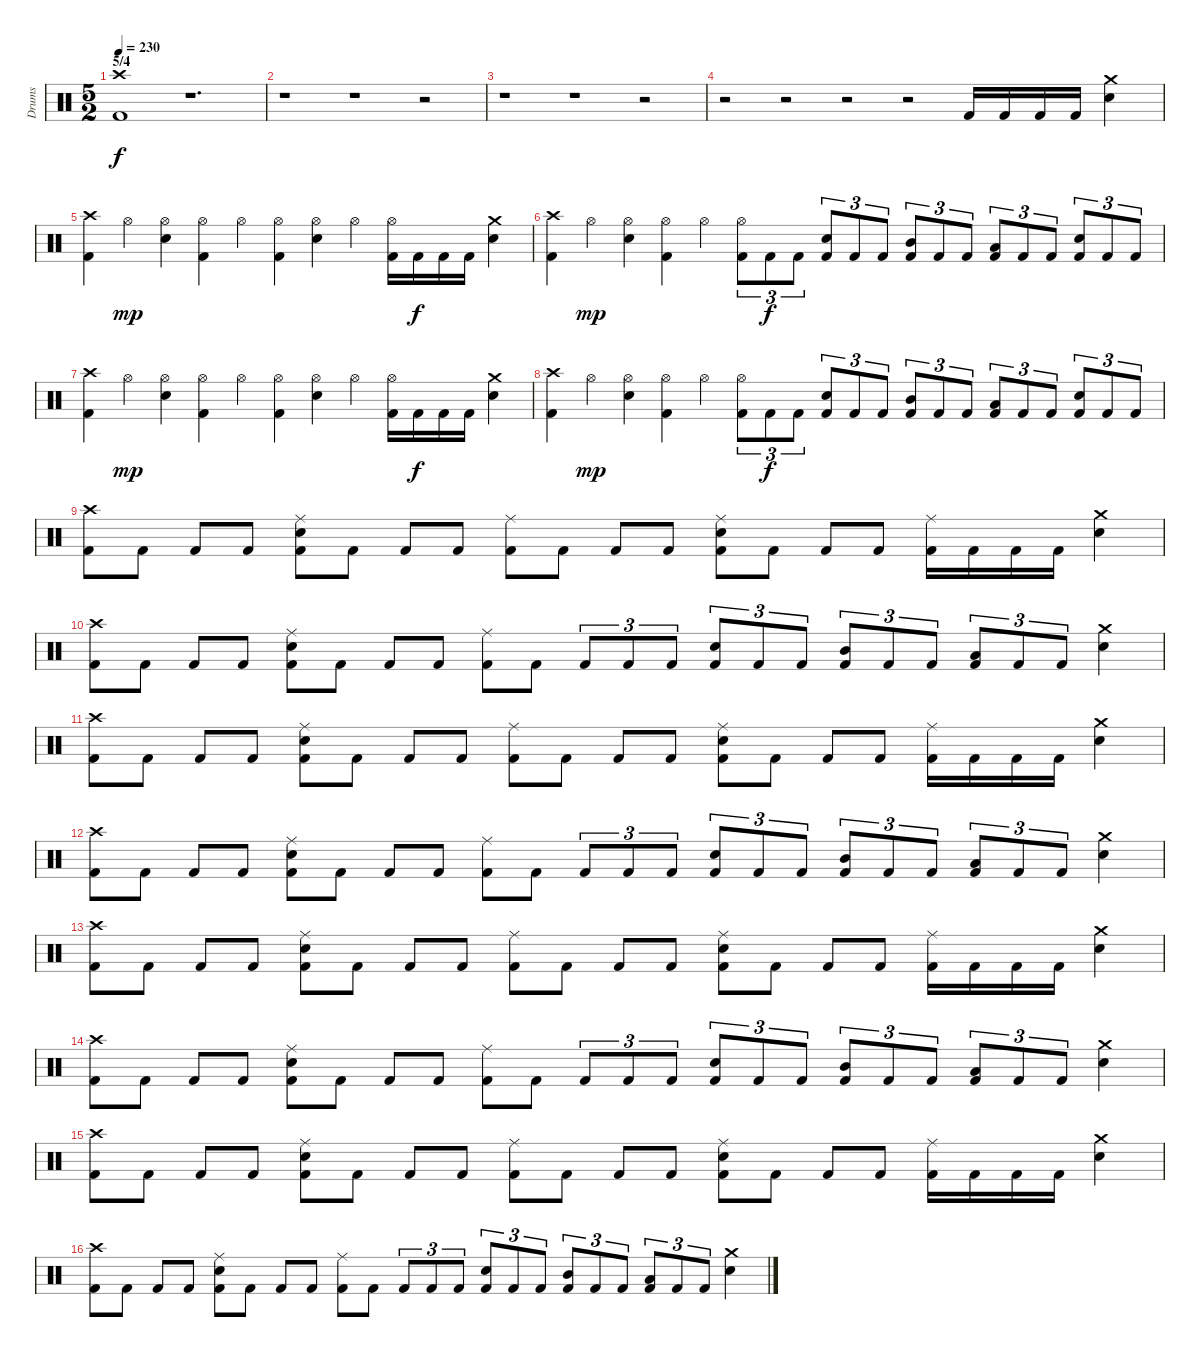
\track ("Drums" "Drums") {instrument percussion}
\staff {score}
\articulation defaults
\ts (5 2)
\section ("" "5/4")
\tempo 230
\clef neutral
\ks c
("Crash high (hit)" "Kick (hit) 2").1{dy f} r.1{d} |
r.1 r.1 r.2 |
r.1 r.1 r.2 |
r.2 r.2 r.2 r.2 "Kick (hit) 2".16 "Kick (hit) 2".16 "Kick (hit) 2".16 "Kick (hit) 2".16 ("Crash medium (hit)" "Snare (hit) 2").4 |
("Crash high (hit)" "Kick (hit) 2").4 "Hi-Hat (open)".4{dy mp} ("Hi-Hat (open)" "Snare (hit) 2").4 ("Hi-Hat (open)" "Kick (hit) 2").4 "Hi-Hat (open)".4 ("Hi-Hat (open)" "Kick (hit) 2").4 ("Hi-Hat (open)" "Snare (hit) 2").4 "Hi-Hat (open)".4 ("Hi-Hat (open)" "Kick (hit) 2").16 "Kick (hit) 2".16{dy f} "Kick (hit) 2".16 "Kick (hit) 2".16 ("Crash medium (hit)" "Snare (hit) 2").4 |
("Crash high (hit)" "Kick (hit) 2").4 "Hi-Hat (open)".4{dy mp} ("Hi-Hat (open)" "Snare (hit) 2").4 ("Hi-Hat (open)" "Kick (hit) 2").4 "Hi-Hat (open)".4 ("Hi-Hat (open)" "Kick (hit) 2").8{tu (3 2)} "Kick (hit) 2".8{tu (3 2) dy f} "Kick (hit) 2".8{tu (3 2)} ("Snare (hit) 2" "Kick (hit) 2").8{tu (3 2)} "Kick (hit) 2".8{tu (3 2)} "Kick (hit) 2".8{tu (3 2)} ("Mid Tom (hit)" "Kick (hit) 2").8{tu (3 2)} "Kick (hit) 2".8{tu (3 2)} "Kick (hit) 2".8{tu (3 2)} ("Low Tom (hit)" "Kick (hit) 2").8{tu (3 2)} "Kick (hit) 2".8{tu (3 2)} "Kick (hit) 2".8{tu (3 2)} ("Snare (hit) 2" "Kick (hit) 2").8{tu (3 2)} "Kick (hit) 2".8{tu (3 2)} "Kick (hit) 2".8{tu (3 2)} |
("Crash high (hit)" "Kick (hit) 2").4 "Hi-Hat (open)".4{dy mp} ("Hi-Hat (open)" "Snare (hit) 2").4 ("Hi-Hat (open)" "Kick (hit) 2").4 "Hi-Hat (open)".4 ("Hi-Hat (open)" "Kick (hit) 2").4 ("Hi-Hat (open)" "Snare (hit) 2").4 "Hi-Hat (open)".4 ("Hi-Hat (open)" "Kick (hit) 2").16 "Kick (hit) 2".16{dy f} "Kick (hit) 2".16 "Kick (hit) 2".16 ("Crash medium (hit)" "Snare (hit) 2").4 |
("Crash high (hit)" "Kick (hit) 2").4 "Hi-Hat (open)".4{dy mp} ("Hi-Hat (open)" "Snare (hit) 2").4 ("Hi-Hat (open)" "Kick (hit) 2").4 "Hi-Hat (open)".4 ("Hi-Hat (open)" "Kick (hit) 2").8{tu (3 2)} "Kick (hit) 2".8{tu (3 2) dy f} "Kick (hit) 2".8{tu (3 2)} ("Snare (hit) 2" "Kick (hit) 2").8{tu (3 2)} "Kick (hit) 2".8{tu (3 2)} "Kick (hit) 2".8{tu (3 2)} ("Mid Tom (hit)" "Kick (hit) 2").8{tu (3 2)} "Kick (hit) 2".8{tu (3 2)} "Kick (hit) 2".8{tu (3 2)} ("Low Tom (hit)" "Kick (hit) 2").8{tu (3 2)} "Kick (hit) 2".8{tu (3 2)} "Kick (hit) 2".8{tu (3 2)} ("Snare (hit) 2" "Kick (hit) 2").8{tu (3 2)} "Kick (hit) 2".8{tu (3 2)} "Kick (hit) 2".8{tu (3 2)} |
("Crash high (hit)" "Kick (hit) 2").8 "Kick (hit) 2".8 "Kick (hit) 2".8 "Kick (hit) 2".8 ("Ride (middle)" "Snare (hit) 2" "Kick (hit) 2").8 "Kick (hit) 2".8 "Kick (hit) 2".8 "Kick (hit) 2".8 ("Ride (middle)" "Kick (hit) 2").8 "Kick (hit) 2".8 "Kick (hit) 2".8 "Kick (hit) 2".8 ("Ride (middle)" "Snare (hit) 2" "Kick (hit) 2").8 "Kick (hit) 2".8 "Kick (hit) 2".8 "Kick (hit) 2".8 ("Ride (middle)" "Kick (hit) 2").16 "Kick (hit) 2".16 "Kick (hit) 2".16 "Kick (hit) 2".16 ("Crash medium (hit)" "Snare (hit) 2").4 |
("Crash high (hit)" "Kick (hit) 2").8 "Kick (hit) 2".8 "Kick (hit) 2".8 "Kick (hit) 2".8 ("Ride (middle)" "Snare (hit) 2" "Kick (hit) 2").8 "Kick (hit) 2".8 "Kick (hit) 2".8 "Kick (hit) 2".8 ("Ride (middle)" "Kick (hit) 2").8 "Kick (hit) 2".8 "Kick (hit) 2".8{tu (3 2)} "Kick (hit) 2".8{tu (3 2)} "Kick (hit) 2".8{tu (3 2)} ("Snare (hit) 2" "Kick (hit) 2").8{tu (3 2)} "Kick (hit) 2".8{tu (3 2)} "Kick (hit) 2".8{tu (3 2)} ("Mid Tom (hit)" "Kick (hit) 2").8{tu (3 2)} "Kick (hit) 2".8{tu (3 2)} "Kick (hit) 2".8{tu (3 2)} ("Low Tom (hit)" "Kick (hit) 2").8{tu (3 2)} "Kick (hit) 2".8{tu (3 2)} "Kick (hit) 2".8{tu (3 2)} ("Crash medium (hit)" "Snare (hit) 2").4 |
("Crash high (hit)" "Kick (hit) 2").8 "Kick (hit) 2".8 "Kick (hit) 2".8 "Kick (hit) 2".8 ("Ride (middle)" "Snare (hit) 2" "Kick (hit) 2").8 "Kick (hit) 2".8 "Kick (hit) 2".8 "Kick (hit) 2".8 ("Ride (middle)" "Kick (hit) 2").8 "Kick (hit) 2".8 "Kick (hit) 2".8 "Kick (hit) 2".8 ("Ride (middle)" "Snare (hit) 2" "Kick (hit) 2").8 "Kick (hit) 2".8 "Kick (hit) 2".8 "Kick (hit) 2".8 ("Ride (middle)" "Kick (hit) 2").16 "Kick (hit) 2".16 "Kick (hit) 2".16 "Kick (hit) 2".16 ("Crash medium (hit)" "Snare (hit) 2").4 |
("Crash high (hit)" "Kick (hit) 2").8 "Kick (hit) 2".8 "Kick (hit) 2".8 "Kick (hit) 2".8 ("Ride (middle)" "Snare (hit) 2" "Kick (hit) 2").8 "Kick (hit) 2".8 "Kick (hit) 2".8 "Kick (hit) 2".8 ("Ride (middle)" "Kick (hit) 2").8 "Kick (hit) 2".8 "Kick (hit) 2".8{tu (3 2)} "Kick (hit) 2".8{tu (3 2)} "Kick (hit) 2".8{tu (3 2)} ("Snare (hit) 2" "Kick (hit) 2").8{tu (3 2)} "Kick (hit) 2".8{tu (3 2)} "Kick (hit) 2".8{tu (3 2)} ("Mid Tom (hit)" "Kick (hit) 2").8{tu (3 2)} "Kick (hit) 2".8{tu (3 2)} "Kick (hit) 2".8{tu (3 2)} ("Low Tom (hit)" "Kick (hit) 2").8{tu (3 2)} "Kick (hit) 2".8{tu (3 2)} "Kick (hit) 2".8{tu (3 2)} ("Crash medium (hit)" "Snare (hit) 2").4 |
("Crash high (hit)" "Kick (hit) 2").8 "Kick (hit) 2".8 "Kick (hit) 2".8 "Kick (hit) 2".8 ("Ride (middle)" "Snare (hit) 2" "Kick (hit) 2").8 "Kick (hit) 2".8 "Kick (hit) 2".8 "Kick (hit) 2".8 ("Ride (middle)" "Kick (hit) 2").8 "Kick (hit) 2".8 "Kick (hit) 2".8 "Kick (hit) 2".8 ("Ride (middle)" "Snare (hit) 2" "Kick (hit) 2").8 "Kick (hit) 2".8 "Kick (hit) 2".8 "Kick (hit) 2".8 ("Ride (middle)" "Kick (hit) 2").16 "Kick (hit) 2".16 "Kick (hit) 2".16 "Kick (hit) 2".16 ("Crash medium (hit)" "Snare (hit) 2").4 |
("Crash high (hit)" "Kick (hit) 2").8 "Kick (hit) 2".8 "Kick (hit) 2".8 "Kick (hit) 2".8 ("Ride (middle)" "Snare (hit) 2" "Kick (hit) 2").8 "Kick (hit) 2".8 "Kick (hit) 2".8 "Kick (hit) 2".8 ("Ride (middle)" "Kick (hit) 2").8 "Kick (hit) 2".8 "Kick (hit) 2".8{tu (3 2)} "Kick (hit) 2".8{tu (3 2)} "Kick (hit) 2".8{tu (3 2)} ("Snare (hit) 2" "Kick (hit) 2").8{tu (3 2)} "Kick (hit) 2".8{tu (3 2)} "Kick (hit) 2".8{tu (3 2)} ("Mid Tom (hit)" "Kick (hit) 2").8{tu (3 2)} "Kick (hit) 2".8{tu (3 2)} "Kick (hit) 2".8{tu (3 2)} ("Low Tom (hit)" "Kick (hit) 2").8{tu (3 2)} "Kick (hit) 2".8{tu (3 2)} "Kick (hit) 2".8{tu (3 2)} ("Crash medium (hit)" "Snare (hit) 2").4 |
("Crash high (hit)" "Kick (hit) 2").8 "Kick (hit) 2".8 "Kick (hit) 2".8 "Kick (hit) 2".8 ("Ride (middle)" "Snare (hit) 2" "Kick (hit) 2").8 "Kick (hit) 2".8 "Kick (hit) 2".8 "Kick (hit) 2".8 ("Ride (middle)" "Kick (hit) 2").8 "Kick (hit) 2".8 "Kick (hit) 2".8 "Kick (hit) 2".8 ("Ride (middle)" "Snare (hit) 2" "Kick (hit) 2").8 "Kick (hit) 2".8 "Kick (hit) 2".8 "Kick (hit) 2".8 ("Ride (middle)" "Kick (hit) 2").16 "Kick (hit) 2".16 "Kick (hit) 2".16 "Kick (hit) 2".16 ("Crash medium (hit)" "Snare (hit) 2").4 |
("Crash high (hit)" "Kick (hit) 2").8 "Kick (hit) 2".8 "Kick (hit) 2".8 "Kick (hit) 2".8 ("Ride (middle)" "Snare (hit) 2" "Kick (hit) 2").8 "Kick (hit) 2".8 "Kick (hit) 2".8 "Kick (hit) 2".8 ("Ride (middle)" "Kick (hit) 2").8 "Kick (hit) 2".8 "Kick (hit) 2".8{tu (3 2)} "Kick (hit) 2".8{tu (3 2)} "Kick (hit) 2".8{tu (3 2)} ("Snare (hit) 2" "Kick (hit) 2").8{tu (3 2)} "Kick (hit) 2".8{tu (3 2)} "Kick (hit) 2".8{tu (3 2)} ("Mid Tom (hit)" "Kick (hit) 2").8{tu (3 2)} "Kick (hit) 2".8{tu (3 2)} "Kick (hit) 2".8{tu (3 2)} ("Low Tom (hit)" "Kick (hit) 2").8{tu (3 2)} "Kick (hit) 2".8{tu (3 2)} "Kick (hit) 2".8{tu (3 2)} ("Crash medium (hit)" "Snare (hit) 2").4
